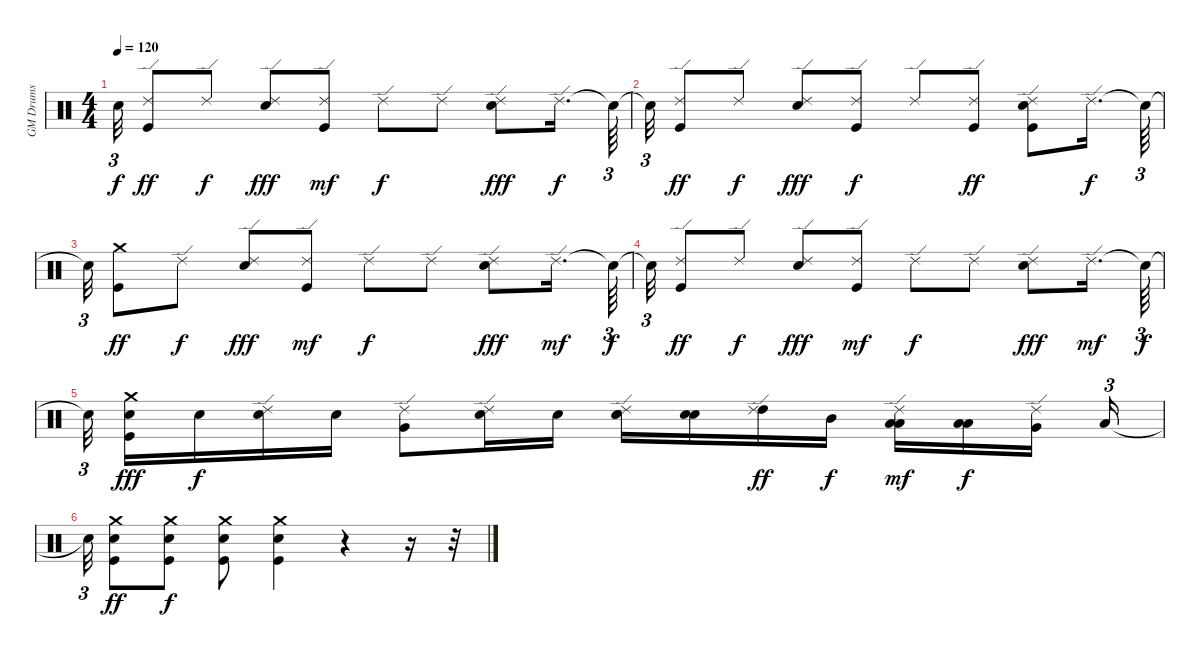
\track ("GM Drums" "GM Drums") {instrument percussion}
\staff {score}
\articulation defaults
\ts (4 4)
\tempo 120
\clef neutral
\ks c "Snare (hit)"{t}.32{tu (3 2) dy f}
("Kick (hit)" "Ride (edge) 2").8{dy ff} "Ride (edge) 2".8{dy f} ("Snare (hit) 2" "Ride (edge) 2").8{dy fff} ("Kick (hit)" "Ride (edge) 2").8{dy mf} "Ride (edge) 2".8{dy f} "Ride (edge) 2".8 ("Snare (hit) 2" "Ride (edge) 2").8{dy fff} "Ride (edge) 2".16{d dy f} "Snare (hit)"{t}.64{tu (3 2)} |
"Snare (hit)"{t}.32{tu (3 2)} ("Kick (hit)" "Ride (edge) 2").8{dy ff} "Ride (edge) 2".8{dy f} ("Snare (hit) 2" "Ride (edge) 2").8{dy fff} ("Kick (hit)" "Ride (edge) 2").8{dy f} "Ride (edge) 2".8 ("Kick (hit)" "Ride (edge) 2").8{dy ff} ("Kick (hit)" "Snare (hit) 2" "Ride (edge) 2").8 "Ride (edge) 2".16{d dy f} "Snare (hit)"{t}.64{tu (3 2)} |
"Snare (hit)"{t}.32{tu (3 2)} ("Kick (hit)" "Crash medium (hit)").8{dy ff} "Ride (edge) 2".8{dy f} ("Snare (hit) 2" "Ride (edge) 2").8{dy fff} ("Kick (hit)" "Ride (edge) 2").8{dy mf} "Ride (edge) 2".8{dy f} "Ride (edge) 2".8 ("Snare (hit) 2" "Ride (edge) 2").8{dy fff} "Ride (edge) 2".16{d dy mf} "Snare (hit)"{t}.64{tu (3 2) dy f} |
"Snare (hit)"{t}.32{tu (3 2)} ("Kick (hit)" "Ride (edge) 2").8{dy ff} "Ride (edge) 2".8{dy f} ("Snare (hit) 2" "Ride (edge) 2").8{dy fff} ("Kick (hit)" "Ride (edge) 2").8{dy mf} "Ride (edge) 2".8{dy f} "Ride (edge) 2".8 ("Snare (hit) 2" "Ride (edge) 2").8{dy fff} "Ride (edge) 2".16{d dy mf} "Snare (hit)"{t}.64{tu (3 2) dy f} |
"Snare (hit)"{t}.32{tu (3 2)} ("Kick (hit)" "Snare (hit) 2" "Crash medium (hit)").16{dy fff} "Snare (hit) 2".16{dy f} ("Snare (hit) 2" "Ride (edge) 2").16 "Snare (hit) 2".16 ("Very Low Tom (hit)" "Ride (edge) 2").8 ("Snare (hit) 2" "Ride (edge) 2").16 "Snare (hit) 2".16 ("Snare (hit) 2" "Ride (edge) 2" "Snare (hit) 2").16 ("Snare (hit) 2" "Snare (hit) 2").16 ("High Tom (hit)" "Ride (edge) 2").16{dy ff} "Mid Tom (hit)".16{dy f} ("Low Tom (hit)" "Ride (edge) 2" "Low Tom (hit)").16{dy mf} ("Low Tom (hit)" "Low Tom (hit)").16{dy f} ("Very Low Tom (hit)" "Ride (edge) 2").16 "Low Floor Tom (hit)".16{tu (3 2)} |
"Snare (hit)"{t}.32{tu (3 2)} ("Kick (hit)" "Snare (hit) 2" "Crash medium (hit)").8{dy ff} ("Kick (hit)" "Snare (hit) 2" "Crash medium (hit)").8{dy f} ("Kick (hit)" "Snare (hit) 2" "Crash medium (hit)").8 ("Kick (hit)" "Snare (hit) 2" "Crash medium (hit)").4 r.4 r.16 r.32
